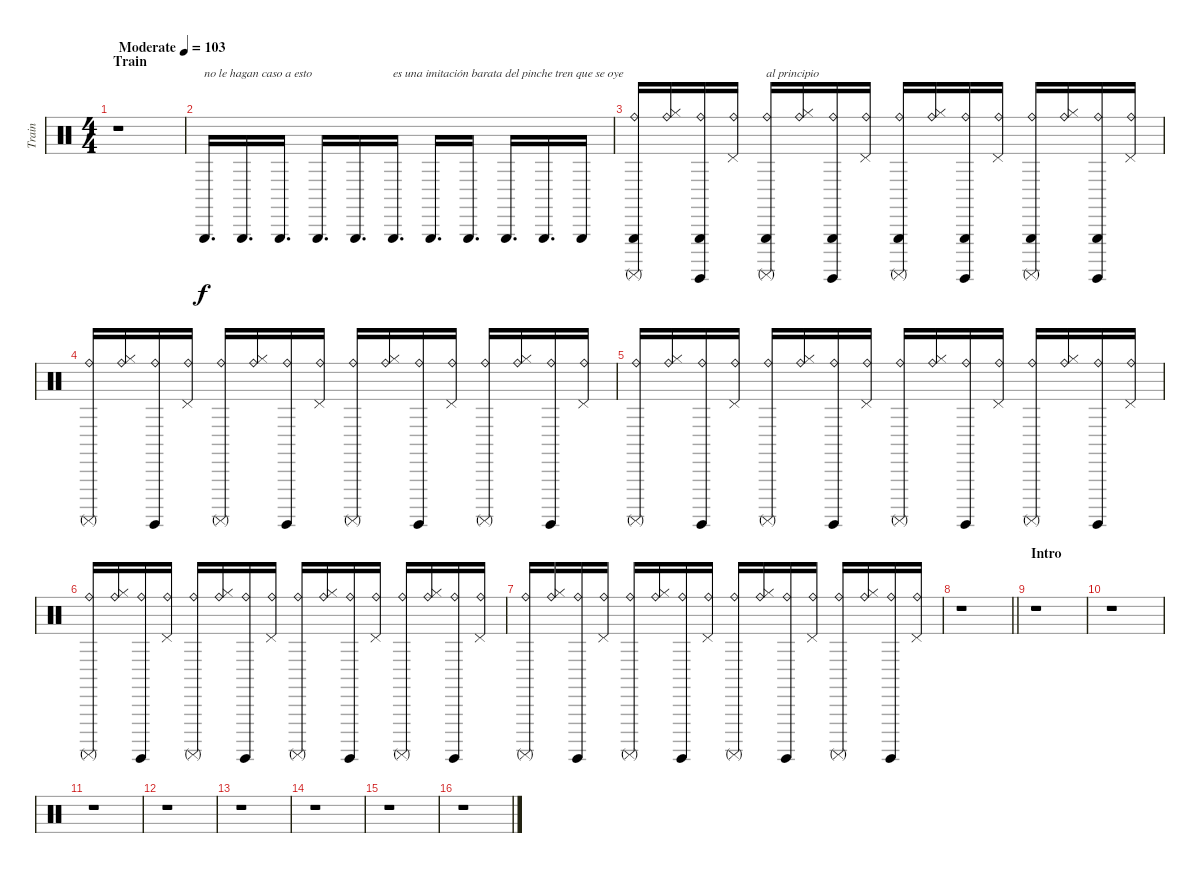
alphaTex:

\track ("Train" "Train") {instrument percussion}
\staff {score}
\articulation defaults
\ts (4 4)
\section ("" "Train")
\tempo (103 "Moderate")
\clef neutral
\ks c
r.1{dy f} |
"Triangle (hit)".16{d txt "no le hagan caso a esto"} "Triangle (hit)".16{d} "Triangle (hit)".16{d} "Triangle (hit)".16{d} "Triangle (hit)".16{d} "Triangle (hit)".16{d txt "es una imitación barata del pinche tren que se oye"} "Triangle (hit)".16{d} "Triangle (hit)".16{d} "Triangle (hit)".16{d} "Triangle (hit)".16{d} "Triangle (hit)".16 |
("Ride (bell)" "Triangle (hit)" "Surdo (mute)").16 ("Ride (bell)" "Hi-Hat (closed)").16 ("Ride (bell)" "Triangle (hit)" "Surdo (hit)").16 ("Ride (bell)" "Pedal Hi-Hat (hit)").16 ("Ride (bell)" "Triangle (hit)" "Surdo (mute)").16{txt "al principio"} ("Ride (bell)" "Hi-Hat (closed)").16 ("Ride (bell)" "Triangle (hit)" "Surdo (hit)").16 ("Ride (bell)" "Pedal Hi-Hat (hit)").16 ("Ride (bell)" "Triangle (hit)" "Surdo (mute)").16 ("Ride (bell)" "Hi-Hat (closed)").16 ("Ride (bell)" "Triangle (hit)" "Surdo (hit)").16 ("Ride (bell)" "Pedal Hi-Hat (hit)").16 ("Ride (bell)" "Triangle (hit)" "Surdo (mute)").16 ("Ride (bell)" "Hi-Hat (closed)").16 ("Ride (bell)" "Triangle (hit)" "Surdo (hit)").16 ("Ride (bell)" "Pedal Hi-Hat (hit)").16 |
("Ride (bell)" "Surdo (mute)").16 ("Ride (bell)" "Hi-Hat (closed)").16 ("Ride (bell)" "Surdo (hit)").16 ("Ride (bell)" "Pedal Hi-Hat (hit)").16 ("Ride (bell)" "Surdo (mute)").16 ("Ride (bell)" "Hi-Hat (closed)").16 ("Ride (bell)" "Surdo (hit)").16 ("Ride (bell)" "Pedal Hi-Hat (hit)").16 ("Ride (bell)" "Surdo (mute)").16 ("Ride (bell)" "Hi-Hat (closed)").16 ("Ride (bell)" "Surdo (hit)").16 ("Ride (bell)" "Pedal Hi-Hat (hit)").16 ("Ride (bell)" "Surdo (mute)").16 ("Ride (bell)" "Hi-Hat (closed)").16 ("Ride (bell)" "Surdo (hit)").16 ("Ride (bell)" "Pedal Hi-Hat (hit)").16 |
("Ride (bell)" "Surdo (mute)").16 ("Ride (bell)" "Hi-Hat (closed)").16 ("Ride (bell)" "Surdo (hit)").16 ("Ride (bell)" "Pedal Hi-Hat (hit)").16 ("Ride (bell)" "Surdo (mute)").16 ("Ride (bell)" "Hi-Hat (closed)").16 ("Ride (bell)" "Surdo (hit)").16 ("Ride (bell)" "Pedal Hi-Hat (hit)").16 ("Ride (bell)" "Surdo (mute)").16 ("Ride (bell)" "Hi-Hat (closed)").16 ("Ride (bell)" "Surdo (hit)").16 ("Ride (bell)" "Pedal Hi-Hat (hit)").16 ("Ride (bell)" "Surdo (mute)").16 ("Ride (bell)" "Hi-Hat (closed)").16 ("Ride (bell)" "Surdo (hit)").16 ("Ride (bell)" "Pedal Hi-Hat (hit)").16 |
("Ride (bell)" "Surdo (mute)").16 ("Ride (bell)" "Hi-Hat (closed)").16 ("Ride (bell)" "Surdo (hit)").16 ("Ride (bell)" "Pedal Hi-Hat (hit)").16 ("Ride (bell)" "Surdo (mute)").16 ("Ride (bell)" "Hi-Hat (closed)").16 ("Ride (bell)" "Surdo (hit)").16 ("Ride (bell)" "Pedal Hi-Hat (hit)").16 ("Ride (bell)" "Surdo (mute)").16 ("Ride (bell)" "Hi-Hat (closed)").16 ("Ride (bell)" "Surdo (hit)").16 ("Ride (bell)" "Pedal Hi-Hat (hit)").16 ("Ride (bell)" "Surdo (mute)").16 ("Ride (bell)" "Hi-Hat (closed)").16 ("Ride (bell)" "Surdo (hit)").16 ("Ride (bell)" "Pedal Hi-Hat (hit)").16 |
("Ride (bell)" "Surdo (mute)").16 ("Ride (bell)" "Hi-Hat (closed)").16 ("Ride (bell)" "Surdo (hit)").16 ("Ride (bell)" "Pedal Hi-Hat (hit)").16 ("Ride (bell)" "Surdo (mute)").16 ("Ride (bell)" "Hi-Hat (closed)").16 ("Ride (bell)" "Surdo (hit)").16 ("Ride (bell)" "Pedal Hi-Hat (hit)").16 ("Ride (bell)" "Surdo (mute)").16 ("Ride (bell)" "Hi-Hat (closed)").16 ("Ride (bell)" "Surdo (hit)").16 ("Ride (bell)" "Pedal Hi-Hat (hit)").16 ("Ride (bell)" "Surdo (mute)").16 ("Ride (bell)" "Hi-Hat (closed)").16 ("Ride (bell)" "Surdo (hit)").16 ("Ride (bell)" "Pedal Hi-Hat (hit)").16 |
\barLineRight lightlight
r.1 |
\section ("" "Intro")
r.1 |
r.1 |
r.1 |
r.1 |
r.1 |
r.1 |
r.1 |
r.1
